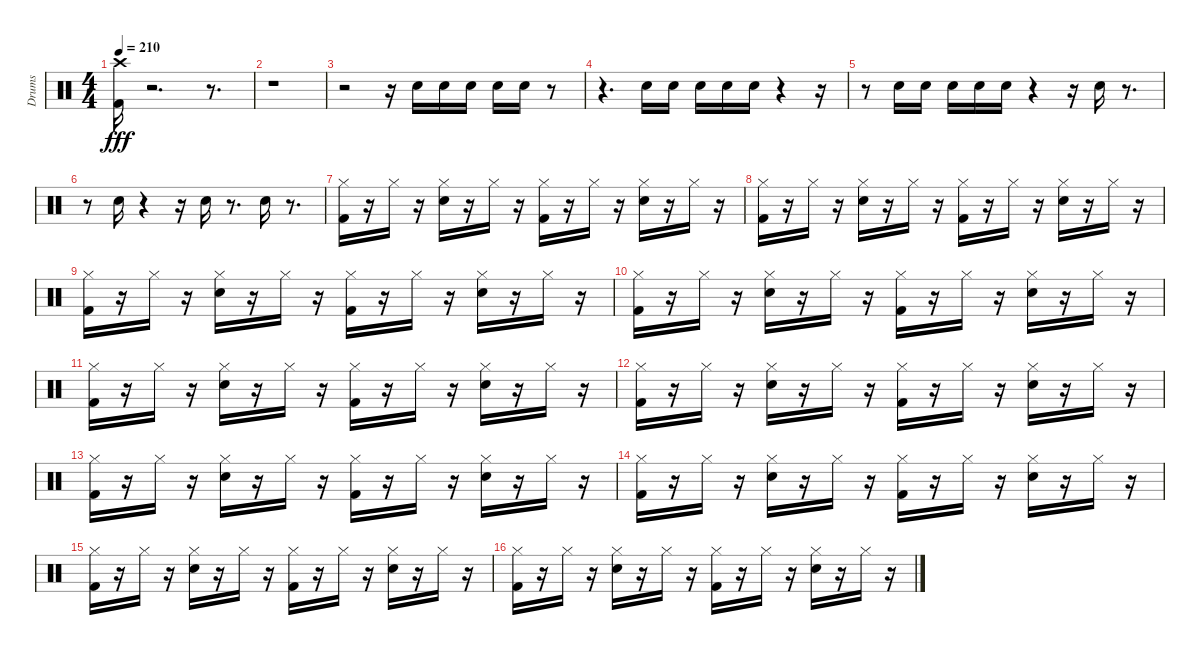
\track ("Drums" "Drums") {instrument percussion}
\staff {score}
\articulation defaults
\ts (4 4)
\tempo 210
\clef neutral
\ks c
("Crash high (hit)" "Kick (hit) 2").16{dy fff} r.2{d} r.8{d} |
r.1 |
r.2 r.16 "Snare (hit) 2".16 "Snare (hit) 2".16 "Snare (hit) 2".16 "Snare (hit) 2".16 "Snare (hit) 2".16 r.8 |
r.4{d} "Snare (hit) 2".16 "Snare (hit) 2".16 "Snare (hit) 2".16 "Snare (hit) 2".16 "Snare (hit) 2".16 r.4 r.16 |
r.8 "Snare (hit) 2".16 "Snare (hit) 2".16 "Snare (hit) 2".16 "Snare (hit) 2".16 "Snare (hit) 2".16 r.4 r.16 "Snare (hit) 2".16 r.8{d} |
r.8 "Snare (hit) 2".16 r.4 r.16 "Snare (hit) 2".16 r.8{d} "Snare (hit) 2".16 r.8{d} |
("Hi-Hat (closed)" "Kick (hit) 2").16 r.16 "Hi-Hat (closed)".16 r.16 ("Snare (hit) 2" "Hi-Hat (closed)").16 r.16 "Hi-Hat (closed)".16 r.16 ("Kick (hit) 2" "Hi-Hat (closed)").16 r.16 "Hi-Hat (closed)".16 r.16 ("Hi-Hat (closed)" "Snare (hit) 2").16 r.16 "Hi-Hat (closed)".16 r.16 |
("Kick (hit) 2" "Hi-Hat (closed)").16 r.16 "Hi-Hat (closed)".16 r.16 ("Hi-Hat (closed)" "Snare (hit) 2").16 r.16 "Hi-Hat (closed)".16 r.16 ("Kick (hit) 2" "Hi-Hat (closed)").16 r.16 "Hi-Hat (closed)".16 r.16 ("Snare (hit) 2" "Hi-Hat (closed)").16 r.16 "Hi-Hat (closed)".16 r.16 |
("Kick (hit) 2" "Hi-Hat (closed)").16 r.16 "Hi-Hat (closed)".16 r.16 ("Snare (hit) 2" "Hi-Hat (closed)").16 r.16 "Hi-Hat (closed)".16 r.16 ("Kick (hit) 2" "Hi-Hat (closed)").16 r.16 "Hi-Hat (closed)".16 r.16 ("Hi-Hat (closed)" "Snare (hit) 2").16 r.16 "Hi-Hat (closed)".16 r.16 |
("Hi-Hat (closed)" "Kick (hit) 2").16 r.16 "Hi-Hat (closed)".16 r.16 ("Snare (hit) 2" "Hi-Hat (closed)").16 r.16 "Hi-Hat (closed)".16 r.16 ("Hi-Hat (closed)" "Kick (hit) 2").16 r.16 "Hi-Hat (closed)".16 r.16 ("Snare (hit) 2" "Hi-Hat (closed)").16 r.16 "Hi-Hat (closed)".16 r.16 |
("Hi-Hat (closed)" "Kick (hit) 2").16 r.16 "Hi-Hat (closed)".16 r.16 ("Hi-Hat (closed)" "Snare (hit) 2").16 r.16 "Hi-Hat (closed)".16 r.16 ("Hi-Hat (closed)" "Kick (hit) 2").16 r.16 "Hi-Hat (closed)".16 r.16 ("Snare (hit) 2" "Hi-Hat (closed)").16 r.16 "Hi-Hat (closed)".16 r.16 |
("Kick (hit) 2" "Hi-Hat (closed)").16 r.16 "Hi-Hat (closed)".16 r.16 ("Hi-Hat (closed)" "Snare (hit) 2").16 r.16 "Hi-Hat (closed)".16 r.16 ("Kick (hit) 2" "Hi-Hat (closed)").16 r.16 "Hi-Hat (closed)".16 r.16 ("Snare (hit) 2" "Hi-Hat (closed)").16 r.16 "Hi-Hat (closed)".16 r.16 |
("Hi-Hat (closed)" "Kick (hit) 2").16 r.16 "Hi-Hat (closed)".16 r.16 ("Hi-Hat (closed)" "Snare (hit) 2").16 r.16 "Hi-Hat (closed)".16 r.16 ("Kick (hit) 2" "Hi-Hat (closed)").16 r.16 "Hi-Hat (closed)".16 r.16 ("Snare (hit) 2" "Hi-Hat (closed)").16 r.16 "Hi-Hat (closed)".16 r.16 |
("Hi-Hat (closed)" "Kick (hit) 2").16 r.16 "Hi-Hat (closed)".16 r.16 ("Hi-Hat (closed)" "Snare (hit) 2").16 r.16 "Hi-Hat (closed)".16 r.16 ("Hi-Hat (closed)" "Kick (hit) 2").16 r.16 "Hi-Hat (closed)".16 r.16 ("Hi-Hat (closed)" "Snare (hit) 2").16 r.16 "Hi-Hat (closed)".16 r.16 |
("Hi-Hat (closed)" "Kick (hit) 2").16 r.16 "Hi-Hat (closed)".16 r.16 ("Hi-Hat (closed)" "Snare (hit) 2").16 r.16 "Hi-Hat (closed)".16 r.16 ("Kick (hit) 2" "Hi-Hat (closed)").16 r.16 "Hi-Hat (closed)".16 r.16 ("Hi-Hat (closed)" "Snare (hit) 2").16 r.16 "Hi-Hat (closed)".16 r.16 |
("Kick (hit) 2" "Hi-Hat (closed)").16 r.16 "Hi-Hat (closed)".16 r.16 ("Snare (hit) 2" "Hi-Hat (closed)").16 r.16 "Hi-Hat (closed)".16 r.16 ("Kick (hit) 2" "Hi-Hat (closed)").16 r.16 "Hi-Hat (closed)".16 r.16 ("Snare (hit) 2" "Hi-Hat (closed)").16 r.16 "Hi-Hat (closed)".16 r.16
